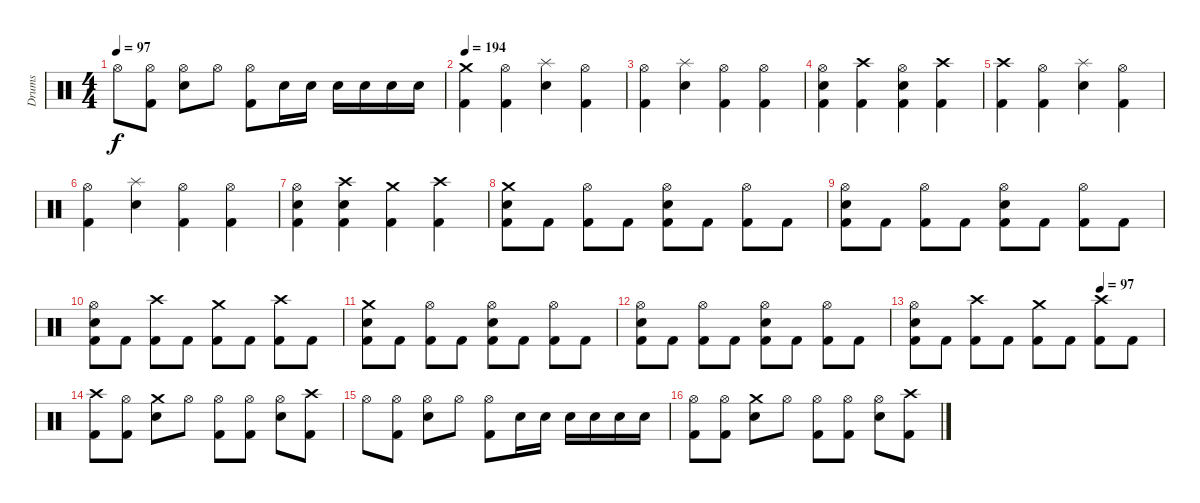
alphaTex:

\track ("Drums" "Drums") {instrument percussion}
\staff {score}
\articulation defaults
\ts (4 4)
\tempo 97
\clef neutral
\ks c "Hi-Hat (open)".8{dy f}
("Hi-Hat (open)" "Kick (hit) 2").8 ("Hi-Hat (open)" "Electric Snare (hit)").8 "Hi-Hat (open)".8 ("Hi-Hat (open)" "Kick (hit) 2").8 "Electric Snare (hit)".16 "Electric Snare (hit)".16 "Electric Snare (hit)".16 "Electric Snare (hit)".16 "Electric Snare (hit)".16 "Electric Snare (hit)".16 |
\tempo 194
("Crash medium (hit)" "Kick (hit) 2").4 ("Hi-Hat (open)" "Kick (hit) 2").4 ("Splash (hit)" "Electric Snare (hit)").4 ("Hi-Hat (open)" "Kick (hit) 2").4 |
("Hi-Hat (open)" "Kick (hit) 2").4 ("Splash (hit)" "Electric Snare (hit)").4 ("Hi-Hat (open)" "Kick (hit) 2").4 ("Hi-Hat (open)" "Kick (hit) 2").4 |
("Hi-Hat (open)" "Electric Snare (hit)" "Kick (hit) 2").4 ("Crash high (hit)" "Kick (hit) 2").4 ("Hi-Hat (open)" "Electric Snare (hit)" "Kick (hit) 2").4 ("Crash high (hit)" "Kick (hit) 2").4 |
("Crash high (hit)" "Kick (hit) 2").4 ("Hi-Hat (open)" "Kick (hit) 2").4 ("Splash (hit)" "Electric Snare (hit)").4 ("Hi-Hat (open)" "Kick (hit) 2").4 |
("Hi-Hat (open)" "Kick (hit) 2").4 ("Splash (hit)" "Electric Snare (hit)").4 ("Hi-Hat (open)" "Kick (hit) 2").4 ("Hi-Hat (open)" "Kick (hit) 2").4 |
("Hi-Hat (open)" "Electric Snare (hit)" "Kick (hit) 2").4 ("Crash high (hit)" "Electric Snare (hit)" "Kick (hit) 2").4 ("Crash medium (hit)" "Kick (hit) 2").4 ("Crash high (hit)" "Kick (hit) 2").4 |
("Crash medium (hit)" "Electric Snare (hit)" "Kick (hit) 2").8 "Kick (hit) 2".8 ("Hi-Hat (open)" "Kick (hit) 2").8 "Kick (hit) 2".8 ("Hi-Hat (open)" "Electric Snare (hit)" "Kick (hit) 2").8 "Kick (hit) 2".8 ("Hi-Hat (open)" "Kick (hit) 2").8 "Kick (hit) 2".8 |
("Hi-Hat (open)" "Electric Snare (hit)" "Kick (hit) 2").8 "Kick (hit) 2".8 ("Hi-Hat (open)" "Kick (hit) 2").8 "Kick (hit) 2".8 ("Hi-Hat (open)" "Electric Snare (hit)" "Kick (hit) 2").8 "Kick (hit) 2".8 ("Hi-Hat (open)" "Kick (hit) 2").8 "Kick (hit) 2".8 |
("Hi-Hat (open)" "Electric Snare (hit)" "Kick (hit) 2").8 "Kick (hit) 2".8 ("Crash high (hit)" "Kick (hit) 2").8 "Kick (hit) 2".8 ("Crash medium (hit)" "Kick (hit) 2").8 "Kick (hit) 2".8 ("Crash high (hit)" "Kick (hit) 2").8 "Kick (hit) 2".8 |
("Crash medium (hit)" "Electric Snare (hit)" "Kick (hit) 2").8 "Kick (hit) 2".8 ("Hi-Hat (open)" "Kick (hit) 2").8 "Kick (hit) 2".8 ("Hi-Hat (open)" "Electric Snare (hit)" "Kick (hit) 2").8 "Kick (hit) 2".8 ("Hi-Hat (open)" "Kick (hit) 2").8 "Kick (hit) 2".8 |
("Hi-Hat (open)" "Electric Snare (hit)" "Kick (hit) 2").8 "Kick (hit) 2".8 ("Hi-Hat (open)" "Kick (hit) 2").8 "Kick (hit) 2".8 ("Hi-Hat (open)" "Electric Snare (hit)" "Kick (hit) 2").8 "Kick (hit) 2".8 ("Hi-Hat (open)" "Kick (hit) 2").8 "Kick (hit) 2".8 |
\tempo (97 0.75)
("Hi-Hat (open)" "Electric Snare (hit)" "Kick (hit) 2").8 "Kick (hit) 2".8 ("Crash high (hit)" "Kick (hit) 2").8 "Kick (hit) 2".8 ("Crash medium (hit)" "Kick (hit) 2").8 "Kick (hit) 2".8 ("Crash high (hit)" "Kick (hit) 2").8 "Kick (hit) 2".8 |
("Crash high (hit)" "Kick (hit) 2").8 ("Hi-Hat (open)" "Kick (hit) 2").8 ("Crash medium (hit)" "Electric Snare (hit)").8 "Hi-Hat (open)".8 ("Hi-Hat (open)" "Kick (hit) 2").8 ("Hi-Hat (open)" "Kick (hit) 2").8 ("Hi-Hat (open)" "Electric Snare (hit)").8 ("Crash high (hit)" "Kick (hit) 2").8 |
"Hi-Hat (open)".8 ("Hi-Hat (open)" "Kick (hit) 2").8 ("Hi-Hat (open)" "Electric Snare (hit)").8 "Hi-Hat (open)".8 ("Hi-Hat (open)" "Kick (hit) 2").8 "Electric Snare (hit)".16 "Electric Snare (hit)".16 "Electric Snare (hit)".16 "Electric Snare (hit)".16 "Electric Snare (hit)".16 "Electric Snare (hit)".16 |
("Hi-Hat (open)" "Kick (hit) 2").8 ("Hi-Hat (open)" "Kick (hit) 2").8 ("Crash medium (hit)" "Electric Snare (hit)").8 "Hi-Hat (open)".8 ("Hi-Hat (open)" "Kick (hit) 2").8 ("Hi-Hat (open)" "Kick (hit) 2").8 ("Hi-Hat (open)" "Electric Snare (hit)").8 ("Crash high (hit)" "Kick (hit) 2").8
